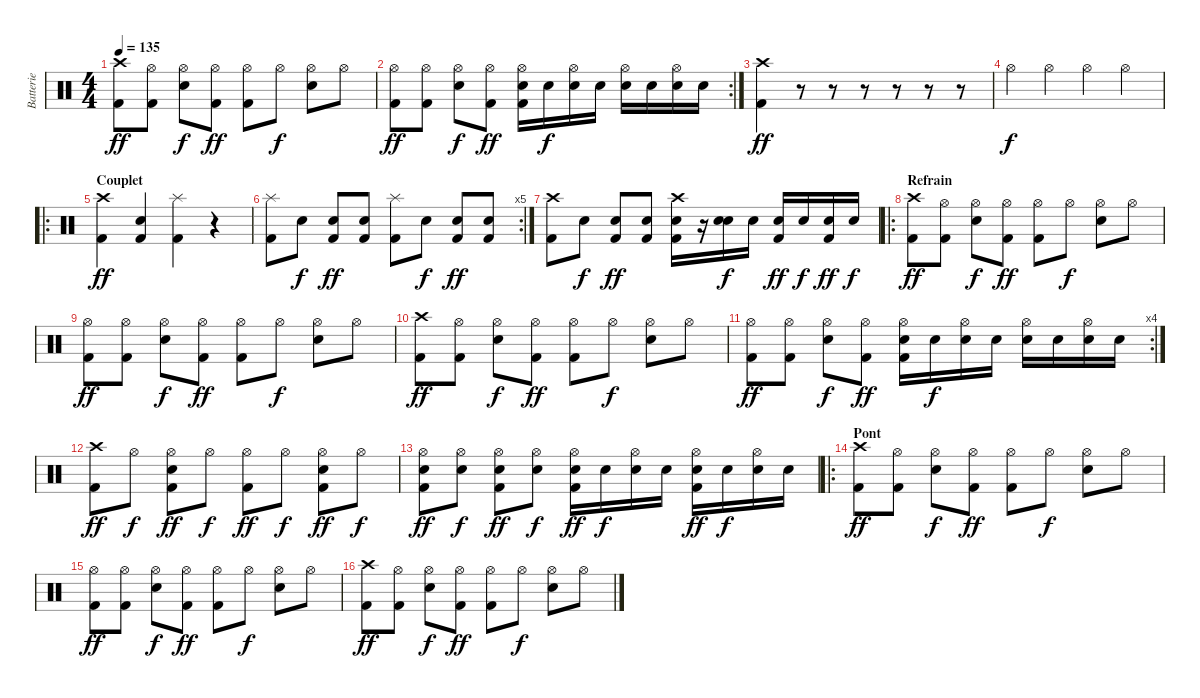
\track ("Batterie" "Batterie") {instrument percussion}
\staff {score}
\articulation defaults
\ts (4 4)
\tempo 135
\clef neutral
\ks c
("Crash high (hit)" "Kick (hit) 2").8{dy ff} ("Hi-Hat (open)" "Kick (hit) 2").8 ("Hi-Hat (open)" "Snare (hit) 2").8{dy f} ("Hi-Hat (open)" "Kick (hit) 2").8{dy ff} ("Hi-Hat (open)" "Kick (hit) 2").8 "Hi-Hat (open)".8{dy f} ("Hi-Hat (open)" "Snare (hit) 2").8 "Hi-Hat (open)".8 |
\rc 2
("Hi-Hat (open)" "Kick (hit) 2").8{dy ff} ("Hi-Hat (open)" "Kick (hit) 2").8 ("Hi-Hat (open)" "Snare (hit) 2").8{dy f} ("Hi-Hat (open)" "Kick (hit) 2").8{dy ff} ("Hi-Hat (open)" "Kick (hit) 2" "Snare (hit) 2").16 "Snare (hit) 2".16{dy f} ("Hi-Hat (open)" "Snare (hit) 2").16 "Snare (hit) 2".16 ("Hi-Hat (open)" "Snare (hit) 2").16 "Snare (hit) 2".16 ("Hi-Hat (open)" "Snare (hit) 2").16 "Snare (hit) 2".16 |
("Crash high (hit)" "Kick (hit) 2").4{dy ff} r.8 r.8 r.8 r.8 r.8 r.8 |
"Hi-Hat (open)".4{dy f} "Hi-Hat (open)".4 "Hi-Hat (open)".4 "Hi-Hat (open)".4 |
\ro
\section ("" "Couplet")
("Crash high (hit)" "Kick (hit) 2").4{dy ff} ("Kick (hit) 2" "Electric Snare (hit)").4 ("Splash (hit)" "Kick (hit) 2").4 r.4 |
\rc 5
("Splash (hit)" "Kick (hit) 2").8 "Snare (hit) 2".8{dy f} ("Kick (hit) 2" "Electric Snare (hit)").8{dy ff} ("Kick (hit) 2" "Electric Snare (hit)").8 ("Splash (hit)" "Kick (hit) 2").8 "Snare (hit) 2".8{dy f} ("Kick (hit) 2" "Electric Snare (hit)").8{dy ff} ("Kick (hit) 2" "Electric Snare (hit)").8 |
("Crash high (hit)" "Kick (hit) 2").8 "Snare (hit) 2".8{dy f} ("Kick (hit) 2" "Electric Snare (hit)").8{dy ff} ("Kick (hit) 2" "Electric Snare (hit)").8 ("Crash high (hit)" "Kick (hit) 2" "Electric Snare (hit)").16 r.16 ("Electric Snare (hit)" "Snare (hit) 2").16{dy f} "Electric Snare (hit)".16 ("Kick (hit) 2" "Electric Snare (hit)").16{dy ff} "Electric Snare (hit)".16{dy f} ("Kick (hit) 2" "Electric Snare (hit)").16{dy ff} "Electric Snare (hit)".16{dy f} |
\ro
\section ("" "Refrain")
("Crash high (hit)" "Kick (hit) 2").8{dy ff} ("Hi-Hat (open)" "Kick (hit) 2").8 ("Hi-Hat (open)" "Snare (hit) 2").8{dy f} ("Hi-Hat (open)" "Kick (hit) 2").8{dy ff} ("Hi-Hat (open)" "Kick (hit) 2").8 "Hi-Hat (open)".8{dy f} ("Hi-Hat (open)" "Snare (hit) 2").8 "Hi-Hat (open)".8 |
("Hi-Hat (open)" "Kick (hit) 2").8{dy ff} ("Hi-Hat (open)" "Kick (hit) 2").8 ("Hi-Hat (open)" "Snare (hit) 2").8{dy f} ("Hi-Hat (open)" "Kick (hit) 2").8{dy ff} ("Hi-Hat (open)" "Kick (hit) 2").8 "Hi-Hat (open)".8{dy f} ("Hi-Hat (open)" "Snare (hit) 2").8 "Hi-Hat (open)".8 |
("Crash high (hit)" "Kick (hit) 2").8{dy ff} ("Hi-Hat (open)" "Kick (hit) 2").8 ("Hi-Hat (open)" "Snare (hit) 2").8{dy f} ("Hi-Hat (open)" "Kick (hit) 2").8{dy ff} ("Hi-Hat (open)" "Kick (hit) 2").8 "Hi-Hat (open)".8{dy f} ("Hi-Hat (open)" "Snare (hit) 2").8 "Hi-Hat (open)".8 |
\rc 4
("Hi-Hat (open)" "Kick (hit) 2").8{dy ff} ("Hi-Hat (open)" "Kick (hit) 2").8 ("Hi-Hat (open)" "Snare (hit) 2").8{dy f} ("Hi-Hat (open)" "Kick (hit) 2").8{dy ff} ("Hi-Hat (open)" "Kick (hit) 2" "Snare (hit) 2").16 "Snare (hit) 2".16{dy f} ("Hi-Hat (open)" "Snare (hit) 2").16 "Snare (hit) 2".16 ("Hi-Hat (open)" "Snare (hit) 2").16 "Snare (hit) 2".16 ("Hi-Hat (open)" "Snare (hit) 2").16 "Snare (hit) 2".16 |
("Crash high (hit)" "Kick (hit) 2").8{dy ff} "Hi-Hat (open)".8{dy f} ("Hi-Hat (open)" "Kick (hit) 2" "Snare (hit) 2").8{dy ff} "Hi-Hat (open)".8{dy f} ("Hi-Hat (open)" "Kick (hit) 2").8{dy ff} "Hi-Hat (open)".8{dy f} ("Hi-Hat (open)" "Kick (hit) 2" "Snare (hit) 2").8{dy ff} "Hi-Hat (open)".8{dy f} |
("Hi-Hat (open)" "Kick (hit) 2" "Snare (hit) 2").8{dy ff} ("Hi-Hat (open)" "Snare (hit) 2").8{dy f} ("Hi-Hat (open)" "Kick (hit) 2" "Snare (hit) 2").8{dy ff} ("Hi-Hat (open)" "Snare (hit) 2").8{dy f} ("Hi-Hat (open)" "Kick (hit) 2" "Snare (hit) 2").16{dy ff} "Snare (hit) 2".16{dy f} ("Hi-Hat (open)" "Snare (hit) 2").16 "Snare (hit) 2".16 ("Hi-Hat (open)" "Kick (hit) 2" "Snare (hit) 2").16{dy ff} "Snare (hit) 2".16{dy f} ("Hi-Hat (open)" "Snare (hit) 2").16 "Snare (hit) 2".16 |
\ro
\section ("" "Pont")
("Crash high (hit)" "Kick (hit) 2").8{dy ff} ("Hi-Hat (open)" "Kick (hit) 2").8 ("Hi-Hat (open)" "Snare (hit) 2").8{dy f} ("Hi-Hat (open)" "Kick (hit) 2").8{dy ff} ("Hi-Hat (open)" "Kick (hit) 2").8 "Hi-Hat (open)".8{dy f} ("Hi-Hat (open)" "Snare (hit) 2").8 "Hi-Hat (open)".8 |
("Hi-Hat (open)" "Kick (hit) 2").8{dy ff} ("Hi-Hat (open)" "Kick (hit) 2").8 ("Hi-Hat (open)" "Snare (hit) 2").8{dy f} ("Hi-Hat (open)" "Kick (hit) 2").8{dy ff} ("Hi-Hat (open)" "Kick (hit) 2").8 "Hi-Hat (open)".8{dy f} ("Hi-Hat (open)" "Snare (hit) 2").8 "Hi-Hat (open)".8 |
("Crash high (hit)" "Kick (hit) 2").8{dy ff} ("Hi-Hat (open)" "Kick (hit) 2").8 ("Hi-Hat (open)" "Snare (hit) 2").8{dy f} ("Hi-Hat (open)" "Kick (hit) 2").8{dy ff} ("Hi-Hat (open)" "Kick (hit) 2").8 "Hi-Hat (open)".8{dy f} ("Hi-Hat (open)" "Snare (hit) 2").8 "Hi-Hat (open)".8
